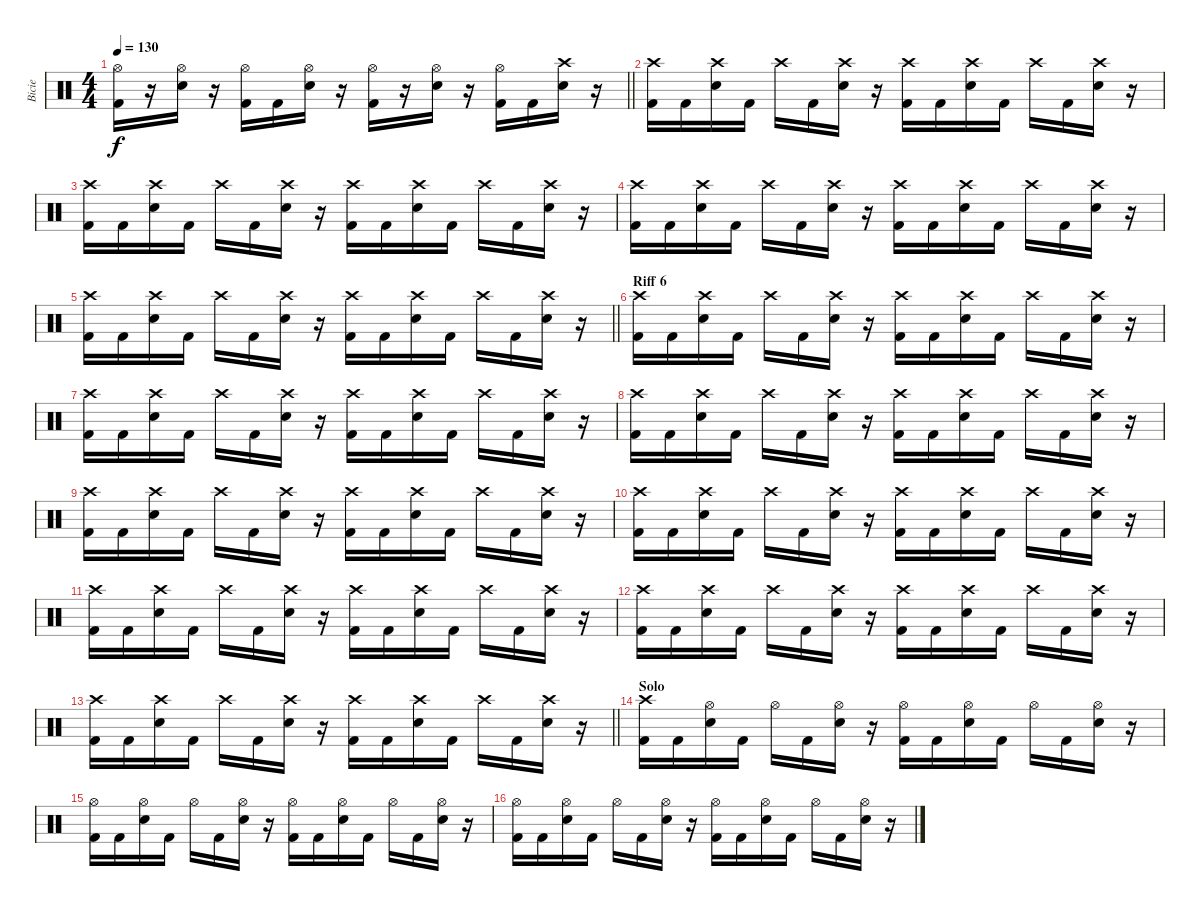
\track ("Bicie" "Bicie") {instrument percussion}
\staff {score}
\articulation defaults
\ts (4 4)
\tempo 130
\clef neutral
\barLineRight lightlight
\ks c
("Hi-Hat (open)" "Kick (hit) 2").16{dy f} r.16 ("Hi-Hat (open)" "Snare (hit) 2").16 r.16 ("Hi-Hat (open)" "Kick (hit) 2").16 "Kick (hit) 2".16 ("Hi-Hat (open)" "Snare (hit) 2").16 r.16 ("Hi-Hat (open)" "Kick (hit) 2").16 r.16 ("Hi-Hat (open)" "Snare (hit) 2").16 r.16 ("Hi-Hat (open)" "Kick (hit) 2").16 "Kick (hit) 2".16 ("Crash high (hit)" "Snare (hit) 2").16 r.16 |
("Crash high (hit)" "Kick (hit) 2").16 "Kick (hit) 2".16 ("Crash high (hit)" "Snare (hit) 2").16 "Kick (hit) 2".16 "Crash high (hit)".16 "Kick (hit) 2".16 ("Crash high (hit)" "Snare (hit) 2").16 r.16 ("Crash high (hit)" "Kick (hit) 2").16 "Kick (hit) 2".16 ("Crash high (hit)" "Snare (hit) 2").16 "Kick (hit) 2".16 "Crash high (hit)".16 "Kick (hit) 2".16 ("Crash high (hit)" "Snare (hit) 2").16 r.16 |
("Crash high (hit)" "Kick (hit) 2").16 "Kick (hit) 2".16 ("Crash high (hit)" "Snare (hit) 2").16 "Kick (hit) 2".16 "Crash high (hit)".16 "Kick (hit) 2".16 ("Crash high (hit)" "Snare (hit) 2").16 r.16 ("Crash high (hit)" "Kick (hit) 2").16 "Kick (hit) 2".16 ("Crash high (hit)" "Snare (hit) 2").16 "Kick (hit) 2".16 "Crash high (hit)".16 "Kick (hit) 2".16 ("Crash high (hit)" "Snare (hit) 2").16 r.16 |
("Crash high (hit)" "Kick (hit) 2").16 "Kick (hit) 2".16 ("Crash high (hit)" "Snare (hit) 2").16 "Kick (hit) 2".16 "Crash high (hit)".16 "Kick (hit) 2".16 ("Crash high (hit)" "Snare (hit) 2").16 r.16 ("Crash high (hit)" "Kick (hit) 2").16 "Kick (hit) 2".16 ("Crash high (hit)" "Snare (hit) 2").16 "Kick (hit) 2".16 "Crash high (hit)".16 "Kick (hit) 2".16 ("Crash high (hit)" "Snare (hit) 2").16 r.16 |
\barLineRight lightlight
("Crash high (hit)" "Kick (hit) 2").16 "Kick (hit) 2".16 ("Crash high (hit)" "Snare (hit) 2").16 "Kick (hit) 2".16 "Crash high (hit)".16 "Kick (hit) 2".16 ("Crash high (hit)" "Snare (hit) 2").16 r.16 ("Crash high (hit)" "Kick (hit) 2").16 "Kick (hit) 2".16 ("Crash high (hit)" "Snare (hit) 2").16 "Kick (hit) 2".16 "Crash high (hit)".16 "Kick (hit) 2".16 ("Crash high (hit)" "Snare (hit) 2").16 r.16 |
\section ("" "Riff 6")
("Crash high (hit)" "Kick (hit) 2").16 "Kick (hit) 2".16 ("Crash high (hit)" "Snare (hit) 2").16 "Kick (hit) 2".16 "Crash high (hit)".16 "Kick (hit) 2".16 ("Crash high (hit)" "Snare (hit) 2").16 r.16 ("Crash high (hit)" "Kick (hit) 2").16 "Kick (hit) 2".16 ("Crash high (hit)" "Snare (hit) 2").16 "Kick (hit) 2".16 "Crash high (hit)".16 "Kick (hit) 2".16 ("Crash high (hit)" "Snare (hit) 2").16 r.16 |
("Crash high (hit)" "Kick (hit) 2").16 "Kick (hit) 2".16 ("Crash high (hit)" "Snare (hit) 2").16 "Kick (hit) 2".16 "Crash high (hit)".16 "Kick (hit) 2".16 ("Crash high (hit)" "Snare (hit) 2").16 r.16 ("Crash high (hit)" "Kick (hit) 2").16 "Kick (hit) 2".16 ("Crash high (hit)" "Snare (hit) 2").16 "Kick (hit) 2".16 "Crash high (hit)".16 "Kick (hit) 2".16 ("Crash high (hit)" "Snare (hit) 2").16 r.16 |
("Crash high (hit)" "Kick (hit) 2").16 "Kick (hit) 2".16 ("Crash high (hit)" "Snare (hit) 2").16 "Kick (hit) 2".16 "Crash high (hit)".16 "Kick (hit) 2".16 ("Crash high (hit)" "Snare (hit) 2").16 r.16 ("Crash high (hit)" "Kick (hit) 2").16 "Kick (hit) 2".16 ("Crash high (hit)" "Snare (hit) 2").16 "Kick (hit) 2".16 "Crash high (hit)".16 "Kick (hit) 2".16 ("Crash high (hit)" "Snare (hit) 2").16 r.16 |
("Crash high (hit)" "Kick (hit) 2").16 "Kick (hit) 2".16 ("Crash high (hit)" "Snare (hit) 2").16 "Kick (hit) 2".16 "Crash high (hit)".16 "Kick (hit) 2".16 ("Crash high (hit)" "Snare (hit) 2").16 r.16 ("Crash high (hit)" "Kick (hit) 2").16 "Kick (hit) 2".16 ("Crash high (hit)" "Snare (hit) 2").16 "Kick (hit) 2".16 "Crash high (hit)".16 "Kick (hit) 2".16 ("Crash high (hit)" "Snare (hit) 2").16 r.16 |
("Crash high (hit)" "Kick (hit) 2").16 "Kick (hit) 2".16 ("Crash high (hit)" "Snare (hit) 2").16 "Kick (hit) 2".16 "Crash high (hit)".16 "Kick (hit) 2".16 ("Crash high (hit)" "Snare (hit) 2").16 r.16 ("Crash high (hit)" "Kick (hit) 2").16 "Kick (hit) 2".16 ("Crash high (hit)" "Snare (hit) 2").16 "Kick (hit) 2".16 "Crash high (hit)".16 "Kick (hit) 2".16 ("Crash high (hit)" "Snare (hit) 2").16 r.16 |
("Crash high (hit)" "Kick (hit) 2").16 "Kick (hit) 2".16 ("Crash high (hit)" "Snare (hit) 2").16 "Kick (hit) 2".16 "Crash high (hit)".16 "Kick (hit) 2".16 ("Crash high (hit)" "Snare (hit) 2").16 r.16 ("Crash high (hit)" "Kick (hit) 2").16 "Kick (hit) 2".16 ("Crash high (hit)" "Snare (hit) 2").16 "Kick (hit) 2".16 "Crash high (hit)".16 "Kick (hit) 2".16 ("Crash high (hit)" "Snare (hit) 2").16 r.16 |
("Crash high (hit)" "Kick (hit) 2").16 "Kick (hit) 2".16 ("Crash high (hit)" "Snare (hit) 2").16 "Kick (hit) 2".16 "Crash high (hit)".16 "Kick (hit) 2".16 ("Crash high (hit)" "Snare (hit) 2").16 r.16 ("Crash high (hit)" "Kick (hit) 2").16 "Kick (hit) 2".16 ("Crash high (hit)" "Snare (hit) 2").16 "Kick (hit) 2".16 "Crash high (hit)".16 "Kick (hit) 2".16 ("Crash high (hit)" "Snare (hit) 2").16 r.16 |
\barLineRight lightlight
("Crash high (hit)" "Kick (hit) 2").16 "Kick (hit) 2".16 ("Crash high (hit)" "Snare (hit) 2").16 "Kick (hit) 2".16 "Crash high (hit)".16 "Kick (hit) 2".16 ("Crash high (hit)" "Snare (hit) 2").16 r.16 ("Crash high (hit)" "Kick (hit) 2").16 "Kick (hit) 2".16 ("Crash high (hit)" "Snare (hit) 2").16 "Kick (hit) 2".16 "Crash high (hit)".16 "Kick (hit) 2".16 ("Crash high (hit)" "Snare (hit) 2").16 r.16 |
\section ("" "Solo")
("Crash high (hit)" "Kick (hit) 2").16 "Kick (hit) 2".16 ("Hi-Hat (open)" "Snare (hit) 2").16 "Kick (hit) 2".16 "Hi-Hat (open)".16 "Kick (hit) 2".16 ("Hi-Hat (open)" "Snare (hit) 2").16 r.16 ("Hi-Hat (open)" "Kick (hit) 2").16 "Kick (hit) 2".16 ("Hi-Hat (open)" "Snare (hit) 2").16 "Kick (hit) 2".16 "Hi-Hat (open)".16 "Kick (hit) 2".16 ("Hi-Hat (open)" "Snare (hit) 2").16 r.16 |
("Hi-Hat (open)" "Kick (hit) 2").16 "Kick (hit) 2".16 ("Hi-Hat (open)" "Snare (hit) 2").16 "Kick (hit) 2".16 "Hi-Hat (open)".16 "Kick (hit) 2".16 ("Hi-Hat (open)" "Snare (hit) 2").16 r.16 ("Hi-Hat (open)" "Kick (hit) 2").16 "Kick (hit) 2".16 ("Hi-Hat (open)" "Snare (hit) 2").16 "Kick (hit) 2".16 "Hi-Hat (open)".16 "Kick (hit) 2".16 ("Hi-Hat (open)" "Snare (hit) 2").16 r.16 |
("Hi-Hat (open)" "Kick (hit) 2").16 "Kick (hit) 2".16 ("Hi-Hat (open)" "Snare (hit) 2").16 "Kick (hit) 2".16 "Hi-Hat (open)".16 "Kick (hit) 2".16 ("Hi-Hat (open)" "Snare (hit) 2").16 r.16 ("Hi-Hat (open)" "Kick (hit) 2").16 "Kick (hit) 2".16 ("Hi-Hat (open)" "Snare (hit) 2").16 "Kick (hit) 2".16 "Hi-Hat (open)".16 "Kick (hit) 2".16 ("Hi-Hat (open)" "Snare (hit) 2").16 r.16
